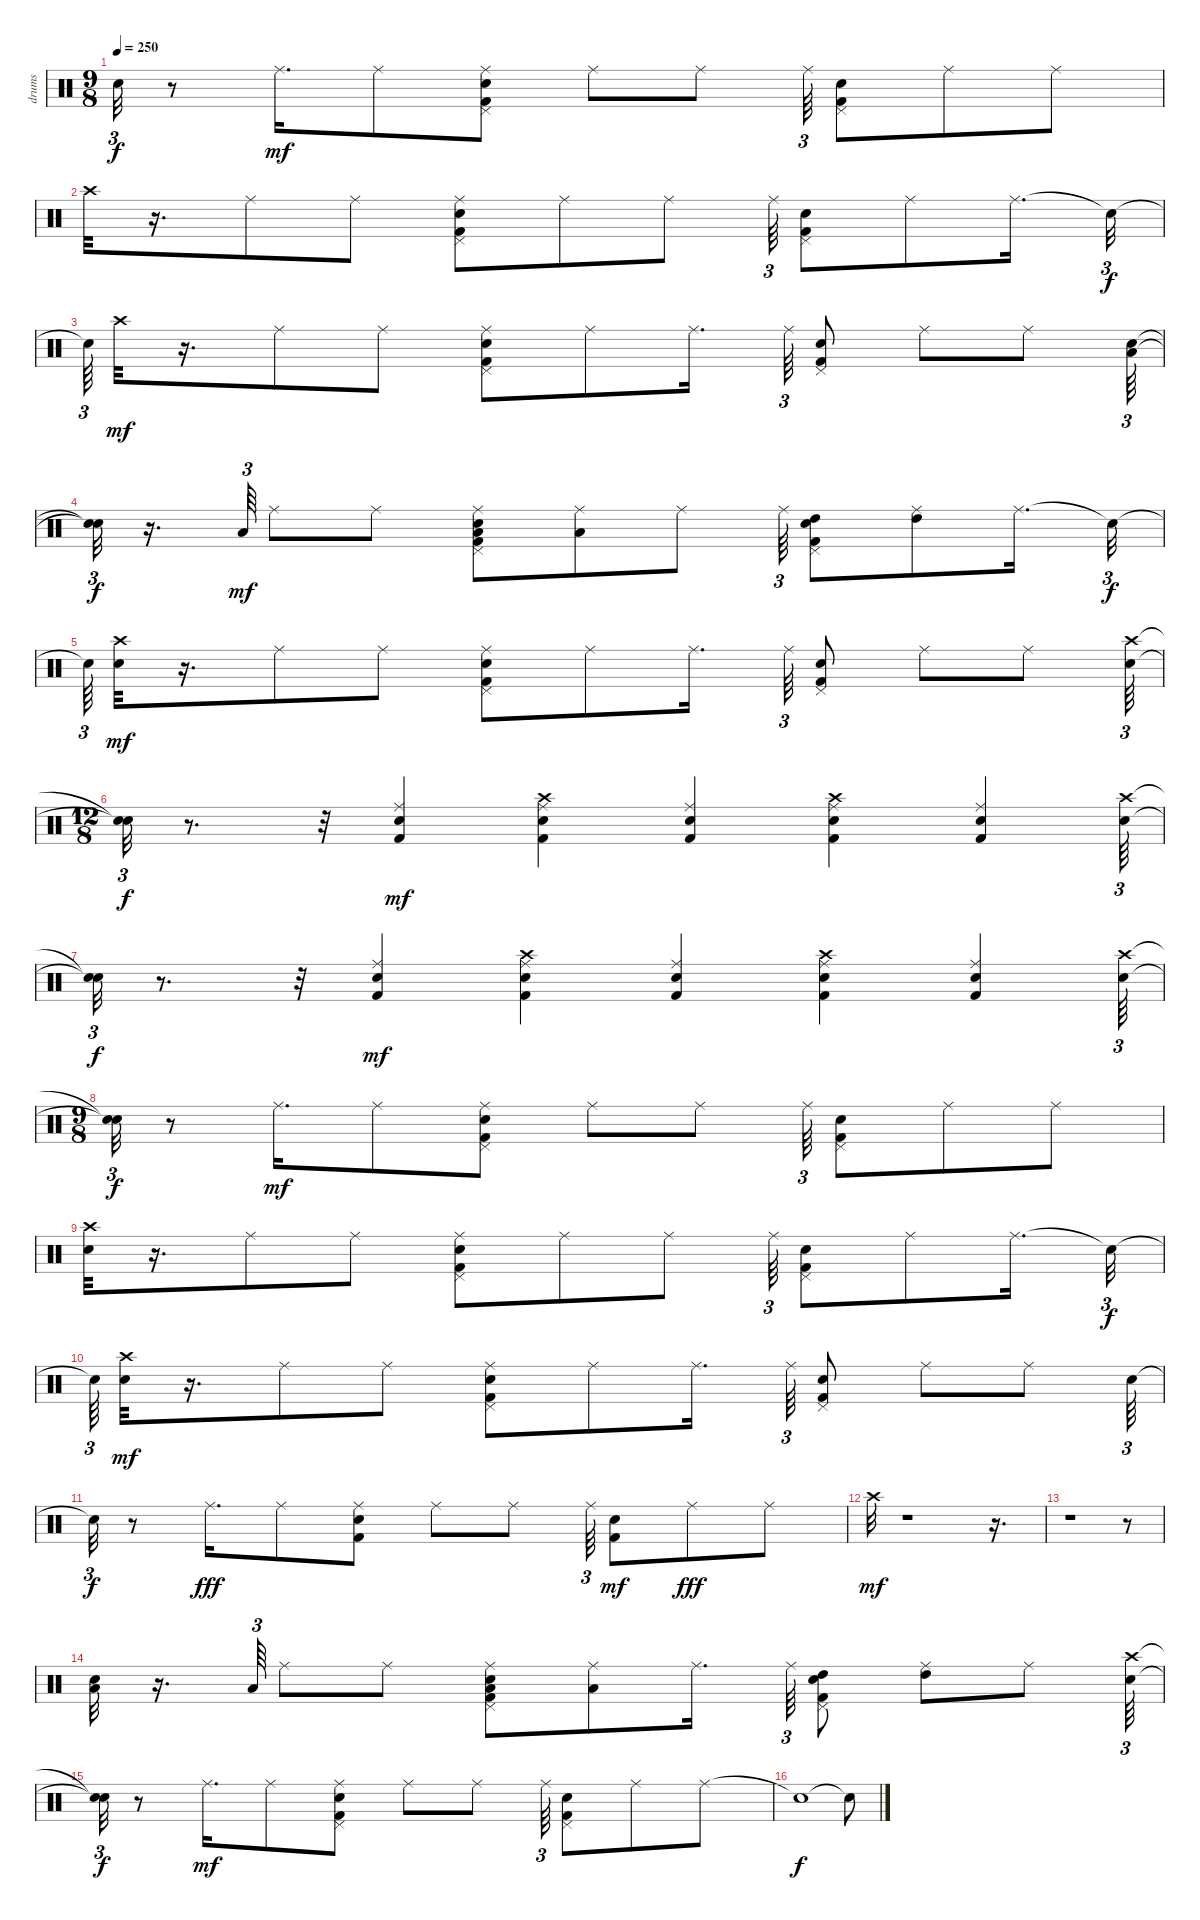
\track ("drums               " "drums     ") {instrument percussion}
\staff {score}
\articulation defaults
\ts (9 8)
\tempo 250
\clef neutral
\ks c "Snare (hit)"{t}.32{tu (3 2) dy f}
r.8 "Ride (middle)".16{d dy mf} "Ride (middle)".8 ("Pedal Hi-Hat (hit)" "Snare (hit) 2" "Kick (hit) 2" "Ride (middle)").8 "Ride (middle)".8 "Ride (middle)".8 "Ride (middle)".64{tu (3 2)} ("Snare (hit) 2" "Kick (hit) 2" "Pedal Hi-Hat (hit)").8 "Ride (middle)".8 "Ride (middle)".8 |
"Crash high (hit)".32 r.16{d} "Ride (middle)".8 "Ride (middle)".8 ("Pedal Hi-Hat (hit)" "Snare (hit) 2" "Kick (hit) 2" "Ride (middle)").8 "Ride (middle)".8 "Ride (middle)".8 "Ride (middle)".64{tu (3 2)} ("Snare (hit) 2" "Kick (hit) 2" "Pedal Hi-Hat (hit)").8 "Ride (middle)".8 "Ride (middle)".16{d} "Snare (hit)"{t}.32{tu (3 2) dy f} |
"Snare (hit)"{t}.64{tu (3 2)} "Crash high (hit)".32{dy mf} r.16{d} "Ride (middle)".8 "Ride (middle)".8 ("Pedal Hi-Hat (hit)" "Snare (hit) 2" "Kick (hit) 2" "Ride (middle)").8 "Ride (middle)".8 "Ride (middle)".16{d} "Ride (middle)".64{tu (3 2)} ("Snare (hit) 2" "Kick (hit) 2" "Pedal Hi-Hat (hit)").8 "Ride (middle)".8 "Ride (middle)".8 ("Snare (hit) 2" "Low Floor Tom (hit)").64{tu (3 2)} |
("Snare (hit)"{t} "Snare (hit)"{t}).32{tu (3 2) dy f} r.16{d} "Low Floor Tom (hit)".64{tu (3 2) dy mf} "Ride (middle)".8 "Ride (middle)".8 ("Pedal Hi-Hat (hit)" "Snare (hit) 2" "Kick (hit) 2" "Low Tom (hit)" "Ride (middle)").8 ("Low Tom (hit)" "Ride (middle)").8 "Ride (middle)".8 "Ride (middle)".64{tu (3 2)} ("Snare (hit) 2" "Kick (hit) 2" "Pedal Hi-Hat (hit)" "High Tom (hit)").8 ("High Tom (hit)" "Ride (middle)").8 "Ride (middle)".16{d} "Snare (hit)"{t}.32{tu (3 2) dy f} |
"Snare (hit)"{t}.64{tu (3 2)} ("Snare (hit) 2" "Crash high (hit)").32{dy mf} r.16{d} "Ride (middle)".8 "Ride (middle)".8 ("Pedal Hi-Hat (hit)" "Snare (hit) 2" "Kick (hit) 2" "Ride (middle)").8 "Ride (middle)".8 "Ride (middle)".16{d} "Ride (middle)".64{tu (3 2)} ("Snare (hit) 2" "Kick (hit) 2" "Pedal Hi-Hat (hit)").8 "Ride (middle)".8 "Ride (middle)".8 ("Snare (hit) 2" "Crash high (hit)").64{tu (3 2)} |
\ts (12 8)
("Snare (hit)"{t} "Snare (hit)"{t}).32{tu (3 2) dy f} r.8{d} r.32 ("Kick (hit) 2" "Snare (hit) 2" "Ride (middle)").4{dy mf} ("Kick (hit) 2" "Snare (hit) 2" "Crash high (hit)" "Ride (middle)").4 ("Kick (hit) 2" "Snare (hit) 2" "Ride (middle)").4 ("Kick (hit) 2" "Snare (hit) 2" "Crash high (hit)" "Ride (middle)").4 ("Kick (hit) 2" "Snare (hit) 2" "Ride (middle)").4 ("Snare (hit) 2" "Crash high (hit)").64{tu (3 2)} |
("Snare (hit)"{t} "Snare (hit)"{t}).32{tu (3 2) dy f} r.8{d} r.32 ("Kick (hit) 2" "Snare (hit) 2" "Ride (middle)").4{dy mf} ("Kick (hit) 2" "Snare (hit) 2" "Crash high (hit)" "Ride (middle)").4 ("Kick (hit) 2" "Snare (hit) 2" "Ride (middle)").4 ("Kick (hit) 2" "Snare (hit) 2" "Crash high (hit)" "Ride (middle)").4 ("Kick (hit) 2" "Snare (hit) 2" "Ride (middle)").4 ("Snare (hit) 2" "Crash high (hit)").64{tu (3 2)} |
\ts (9 8)
("Snare (hit)"{t} "Snare (hit)"{t}).32{tu (3 2) dy f} r.8 "Ride (middle)".16{d dy mf} "Ride (middle)".8 ("Pedal Hi-Hat (hit)" "Snare (hit) 2" "Kick (hit) 2" "Ride (middle)").8 "Ride (middle)".8 "Ride (middle)".8 "Ride (middle)".64{tu (3 2)} ("Snare (hit) 2" "Kick (hit) 2" "Pedal Hi-Hat (hit)").8 "Ride (middle)".8 "Ride (middle)".8 |
("Snare (hit) 2" "Crash high (hit)").32 r.16{d} "Ride (middle)".8 "Ride (middle)".8 ("Pedal Hi-Hat (hit)" "Snare (hit) 2" "Kick (hit) 2" "Ride (middle)").8 "Ride (middle)".8 "Ride (middle)".8 "Ride (middle)".64{tu (3 2)} ("Snare (hit) 2" "Kick (hit) 2" "Pedal Hi-Hat (hit)").8 "Ride (middle)".8 "Ride (middle)".16{d} "Snare (hit)"{t}.32{tu (3 2) dy f} |
"Snare (hit)"{t}.64{tu (3 2)} ("Snare (hit) 2" "Crash high (hit)").32{dy mf} r.16{d} "Ride (middle)".8 "Ride (middle)".8 ("Pedal Hi-Hat (hit)" "Snare (hit) 2" "Kick (hit) 2" "Ride (middle)").8 "Ride (middle)".8 "Ride (middle)".16{d} "Ride (middle)".64{tu (3 2)} ("Snare (hit) 2" "Kick (hit) 2" "Pedal Hi-Hat (hit)").8 "Ride (middle)".8 "Ride (middle)".8 "Snare (hit) 2".64{tu (3 2)} |
"Snare (hit)"{t}.32{tu (3 2) dy f} r.8 "Ride (middle)".16{d dy fff} "Ride (middle)".8 ("Snare (hit) 2" "Kick (hit) 2" "Ride (middle)").8 "Ride (middle)".8 "Ride (middle)".8 "Ride (middle)".64{tu (3 2)} ("Kick (hit) 2" "Snare (hit) 2").8{dy mf} "Ride (middle)".8{dy fff} "Ride (middle)".8 |
"Crash high (hit)".32{dy mf} r.1 r.16{d} |
r.1 r.8 |
("Snare (hit) 2" "Low Floor Tom (hit)").32 r.16{d} "Low Floor Tom (hit)".64{tu (3 2)} "Ride (middle)".8 "Ride (middle)".8 ("Pedal Hi-Hat (hit)" "Snare (hit) 2" "Kick (hit) 2" "Low Tom (hit)" "Ride (middle)").8 ("Low Tom (hit)" "Ride (middle)").8 "Ride (middle)".16{d} "Ride (middle)".64{tu (3 2)} ("Snare (hit) 2" "Kick (hit) 2" "Pedal Hi-Hat (hit)" "High Tom (hit)").8 ("High Tom (hit)" "Ride (middle)").8 "Ride (middle)".8 ("Snare (hit) 2" "Crash high (hit)").64{tu (3 2)} |
("Snare (hit)"{t} "Snare (hit)"{t}).32{tu (3 2) dy f} r.8 "Ride (middle)".16{d dy mf} "Ride (middle)".8 ("Pedal Hi-Hat (hit)" "Snare (hit) 2" "Kick (hit) 2" "Ride (middle)").8 "Ride (middle)".8 "Ride (middle)".8 "Ride (middle)".64{tu (3 2)} ("Snare (hit) 2" "Kick (hit) 2" "Pedal Hi-Hat (hit)").8 "Ride (middle)".8 "Ride (middle)".8 |
"Snare (hit)"{t}.1{dy f} "Snare (hit)"{t}.8
